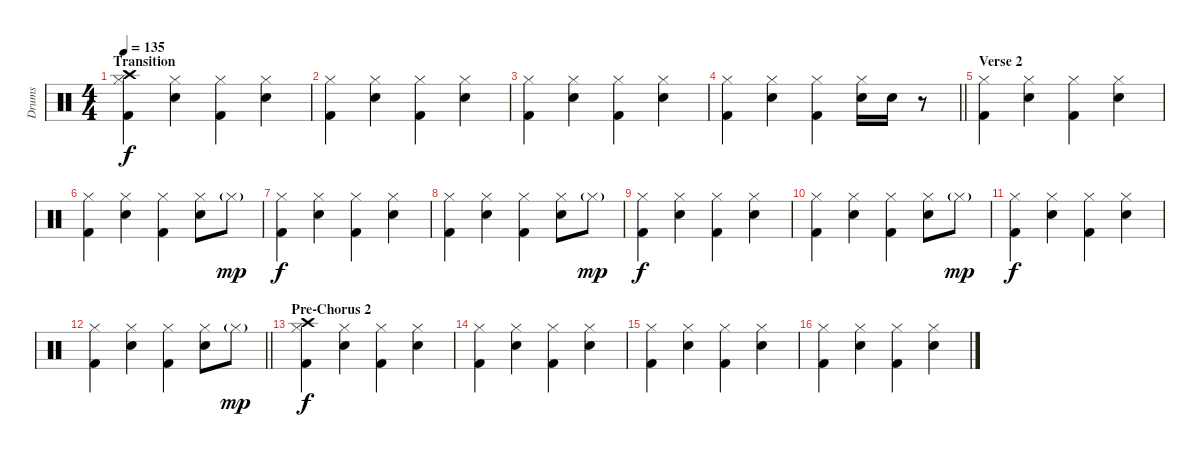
\track ("Drums" "Drums") {instrument percussion}
\staff {score}
\articulation defaults
\ts (4 4)
\section ("" "Transition")
\tempo 135
\clef neutral
\ks c
("Hi-Hat (closed)" "Crash high (hit)" "Kick (hit) 2").4{dy f} ("Hi-Hat (closed)" "Electric Snare (hit)").4 ("Hi-Hat (closed)" "Kick (hit) 2").4 ("Hi-Hat (closed)" "Electric Snare (hit)").4 |
("Hi-Hat (closed)" "Kick (hit) 2").4 ("Hi-Hat (closed)" "Electric Snare (hit)").4 ("Hi-Hat (closed)" "Kick (hit) 2").4 ("Hi-Hat (closed)" "Electric Snare (hit)").4 |
("Hi-Hat (closed)" "Kick (hit) 2").4 ("Hi-Hat (closed)" "Electric Snare (hit)").4 ("Hi-Hat (closed)" "Kick (hit) 2").4 ("Hi-Hat (closed)" "Electric Snare (hit)").4 |
\barLineRight lightlight
("Hi-Hat (closed)" "Kick (hit) 2").4 ("Hi-Hat (closed)" "Electric Snare (hit)").4 ("Hi-Hat (closed)" "Kick (hit) 2").4 ("Hi-Hat (closed)" "Electric Snare (hit)").16 "Electric Snare (hit)".16 r.8 |
\section ("" "Verse 2")
("Hi-Hat (closed)" "Kick (hit) 2").4 ("Hi-Hat (closed)" "Electric Snare (hit)").4 ("Hi-Hat (closed)" "Kick (hit) 2").4 ("Hi-Hat (closed)" "Electric Snare (hit)").4 |
("Hi-Hat (closed)" "Kick (hit) 2").4 ("Hi-Hat (closed)" "Electric Snare (hit)").4 ("Hi-Hat (closed)" "Kick (hit) 2").4 ("Hi-Hat (closed)" "Electric Snare (hit)").8 "Hi-Hat (closed)"{g}.8{dy mp} |
("Hi-Hat (closed)" "Kick (hit) 2").4{dy f} ("Hi-Hat (closed)" "Electric Snare (hit)").4 ("Hi-Hat (closed)" "Kick (hit) 2").4 ("Hi-Hat (closed)" "Electric Snare (hit)").4 |
("Hi-Hat (closed)" "Kick (hit) 2").4 ("Hi-Hat (closed)" "Electric Snare (hit)").4 ("Hi-Hat (closed)" "Kick (hit) 2").4 ("Hi-Hat (closed)" "Electric Snare (hit)").8 "Hi-Hat (closed)"{g}.8{dy mp} |
("Hi-Hat (closed)" "Kick (hit) 2").4{dy f} ("Hi-Hat (closed)" "Electric Snare (hit)").4 ("Hi-Hat (closed)" "Kick (hit) 2").4 ("Hi-Hat (closed)" "Electric Snare (hit)").4 |
("Hi-Hat (closed)" "Kick (hit) 2").4 ("Hi-Hat (closed)" "Electric Snare (hit)").4 ("Hi-Hat (closed)" "Kick (hit) 2").4 ("Hi-Hat (closed)" "Electric Snare (hit)").8 "Hi-Hat (closed)"{g}.8{dy mp} |
("Hi-Hat (closed)" "Kick (hit) 2").4{dy f} ("Hi-Hat (closed)" "Electric Snare (hit)").4 ("Hi-Hat (closed)" "Kick (hit) 2").4 ("Hi-Hat (closed)" "Electric Snare (hit)").4 |
\barLineRight lightlight
("Hi-Hat (closed)" "Kick (hit) 2").4 ("Hi-Hat (closed)" "Electric Snare (hit)").4 ("Hi-Hat (closed)" "Kick (hit) 2").4 ("Hi-Hat (closed)" "Electric Snare (hit)").8 "Hi-Hat (closed)"{g}.8{dy mp} |
\section ("" "Pre-Chorus 2")
("Hi-Hat (closed)" "Crash high (hit)" "Kick (hit) 2").4{dy f} ("Hi-Hat (closed)" "Electric Snare (hit)").4 ("Hi-Hat (closed)" "Kick (hit) 2").4 ("Hi-Hat (closed)" "Electric Snare (hit)").4 |
("Hi-Hat (closed)" "Kick (hit) 2").4 ("Hi-Hat (closed)" "Electric Snare (hit)").4 ("Hi-Hat (closed)" "Kick (hit) 2").4 ("Hi-Hat (closed)" "Electric Snare (hit)").4 |
("Hi-Hat (closed)" "Kick (hit) 2").4 ("Hi-Hat (closed)" "Electric Snare (hit)").4 ("Hi-Hat (closed)" "Kick (hit) 2").4 ("Hi-Hat (closed)" "Electric Snare (hit)").4 |
("Hi-Hat (closed)" "Kick (hit) 2").4 ("Hi-Hat (closed)" "Electric Snare (hit)").4 ("Hi-Hat (closed)" "Kick (hit) 2").4 ("Hi-Hat (closed)" "Electric Snare (hit)").4
